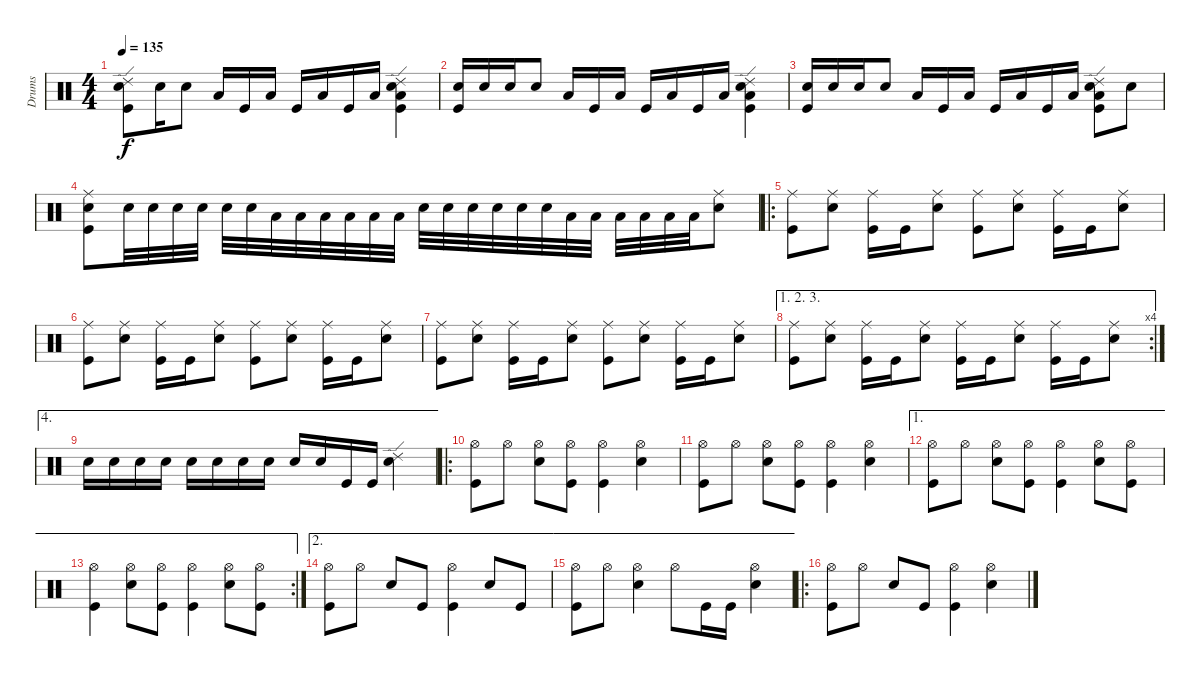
\track ("Drums" "Drums") {instrument percussion}
\staff {score}
\articulation defaults
\ts (4 4)
\tempo 135
\clef neutral
\ks c
("Snare (hit) 2" "Kick (hit)" "Ride (edge) 2").8{dy f} "Snare (hit) 2".16 "Snare (hit) 2".8 "Low Tom (hit)".16 "Kick (hit)".16 "Low Tom (hit)".16 "Kick (hit)".16 "Low Tom (hit)".16 "Kick (hit)".16 "Low Tom (hit)".16 ("Ride (edge) 2" "Low Tom (hit)" "Snare (hit) 2" "Kick (hit)").4 |
("Snare (hit) 2" "Kick (hit)").16 "Snare (hit) 2".16 "Snare (hit) 2".16 "Snare (hit) 2".8 "Low Tom (hit)".16 "Kick (hit)".16 "Low Tom (hit)".16 "Kick (hit)".16 "Low Tom (hit)".16 "Kick (hit)".16 "Low Tom (hit)".16 ("Ride (edge) 2" "Low Tom (hit)" "Snare (hit) 2" "Kick (hit)").4 |
("Snare (hit) 2" "Kick (hit)").16 "Snare (hit) 2".16 "Snare (hit) 2".16 "Snare (hit) 2".8 "Low Tom (hit)".16 "Kick (hit)".16 "Low Tom (hit)".16 "Kick (hit)".16 "Low Tom (hit)".16 "Kick (hit)".16 "Low Tom (hit)".16 ("Ride (edge) 2" "Low Tom (hit)" "Snare (hit) 2" "Kick (hit)").8 "Snare (hit) 2".8 |
("Snare (hit) 2" "Ride (middle)" "Kick (hit)").8 "Snare (hit) 2".32 "Snare (hit) 2".32 "Snare (hit) 2".32 "Snare (hit) 2".32 "Snare (hit) 2".32 "Snare (hit) 2".32 "Low Floor Tom (hit)".32 "Low Floor Tom (hit)".32 "Low Floor Tom (hit)".32 "Low Floor Tom (hit)".32 "Low Floor Tom (hit)".32 "Low Floor Tom (hit)".32 "Snare (hit) 2".32 "Snare (hit) 2".32 "Snare (hit) 2".32 "Snare (hit) 2".32 "Snare (hit) 2".32 "Snare (hit) 2".32 "Low Floor Tom (hit)".32 "Low Floor Tom (hit)".32 "Low Floor Tom (hit)".32 "Low Floor Tom (hit)".32 "Low Floor Tom (hit)".32 "Low Floor Tom (hit)".32 ("Snare (hit) 2" "Ride (middle)").8 |
\ro
("Kick (hit)" "Ride (middle)").8 ("Snare (hit) 2" "Ride (middle)").8 ("Kick (hit)" "Ride (middle)").16 "Kick (hit)".16 ("Snare (hit) 2" "Ride (middle)").8 ("Kick (hit)" "Ride (middle)").8 ("Snare (hit) 2" "Ride (middle)").8 ("Kick (hit)" "Ride (middle)").16 "Kick (hit)".16 ("Snare (hit) 2" "Ride (middle)").8 |
("Kick (hit)" "Ride (middle)").8 ("Snare (hit) 2" "Ride (middle)").8 ("Kick (hit)" "Ride (middle)").16 "Kick (hit)".16 ("Snare (hit) 2" "Ride (middle)").8 ("Kick (hit)" "Ride (middle)").8 ("Snare (hit) 2" "Ride (middle)").8 ("Kick (hit)" "Ride (middle)").16 "Kick (hit)".16 ("Snare (hit) 2" "Ride (middle)").8 |
("Kick (hit)" "Ride (middle)").8 ("Snare (hit) 2" "Ride (middle)").8 ("Kick (hit)" "Ride (middle)").16 "Kick (hit)".16 ("Snare (hit) 2" "Ride (middle)").8 ("Kick (hit)" "Ride (middle)").8 ("Snare (hit) 2" "Ride (middle)").8 ("Kick (hit)" "Ride (middle)").16 "Kick (hit)".16 ("Snare (hit) 2" "Ride (middle)").8 |
\ae (1 2 3)
\rc 4
("Kick (hit)" "Ride (middle)").8 ("Snare (hit) 2" "Ride (middle)").8 ("Kick (hit)" "Ride (middle)").16 "Kick (hit)".16 ("Snare (hit) 2" "Ride (middle)").8 ("Kick (hit)" "Ride (middle)").16 "Kick (hit)".16 ("Snare (hit) 2" "Ride (middle)").8 ("Kick (hit)" "Ride (middle)").16 "Kick (hit)".16 ("Snare (hit) 2" "Ride (middle)").8 |
\ae 4 "Snare (hit) 2".16 "Snare (hit) 2".16 "Snare (hit) 2".16 "Snare (hit) 2".16 "Snare (hit) 2".16 "Snare (hit) 2".16 "Snare (hit) 2".16 "Snare (hit) 2".16 "Snare (hit) 2".16 "Snare (hit) 2".16 "Kick (hit)".16 "Kick (hit)".16
("Ride (edge) 2" "Snare (hit) 2").4 |
\ro
("Kick (hit)" "Hi-Hat (open)").8 "Hi-Hat (open)".8 ("Snare (hit) 2" "Hi-Hat (open)").8 ("Kick (hit)" "Hi-Hat (open)").8 ("Kick (hit)" "Hi-Hat (open)").4 ("Snare (hit) 2" "Hi-Hat (open)").4 |
("Kick (hit)" "Hi-Hat (open)").8 "Hi-Hat (open)".8 ("Snare (hit) 2" "Hi-Hat (open)").8 ("Kick (hit)" "Hi-Hat (open)").8 ("Kick (hit)" "Hi-Hat (open)").4 ("Snare (hit) 2" "Hi-Hat (open)").4 |
\ae 1
("Kick (hit)" "Hi-Hat (open)").8 "Hi-Hat (open)".8 ("Snare (hit) 2" "Hi-Hat (open)").8 ("Kick (hit)" "Hi-Hat (open)").8 ("Kick (hit)" "Hi-Hat (open)").4 ("Snare (hit) 2" "Hi-Hat (open)").8 ("Kick (hit)" "Hi-Hat (open)").8 |
\ae 1
\rc 2
("Kick (hit)" "Hi-Hat (open)").4 ("Snare (hit) 2" "Hi-Hat (open)").8 ("Kick (hit)" "Hi-Hat (open)").8 ("Kick (hit)" "Hi-Hat (open)").4 ("Snare (hit) 2" "Hi-Hat (open)").8 ("Kick (hit)" "Hi-Hat (open)").8 |
\ae 2
("Kick (hit)" "Hi-Hat (open)").8 "Hi-Hat (open)".8 "Snare (hit) 2".8 "Kick (hit)".8 ("Kick (hit)" "Hi-Hat (open)").4 "Snare (hit) 2".8 "Kick (hit)".8 |
\ae 2
("Kick (hit)" "Hi-Hat (open)").8 "Hi-Hat (open)".8 ("Snare (hit) 2" "Hi-Hat (open)").4 "Hi-Hat (open)".8 "Kick (hit)".16 "Kick (hit)".16 ("Snare (hit) 2" "Hi-Hat (open)").4 |
\ro
("Kick (hit)" "Hi-Hat (open)").8 "Hi-Hat (open)".8 "Snare (hit) 2".8 "Kick (hit)".8 ("Kick (hit)" "Hi-Hat (open)").4 ("Snare (hit) 2" "Hi-Hat (open)").4
